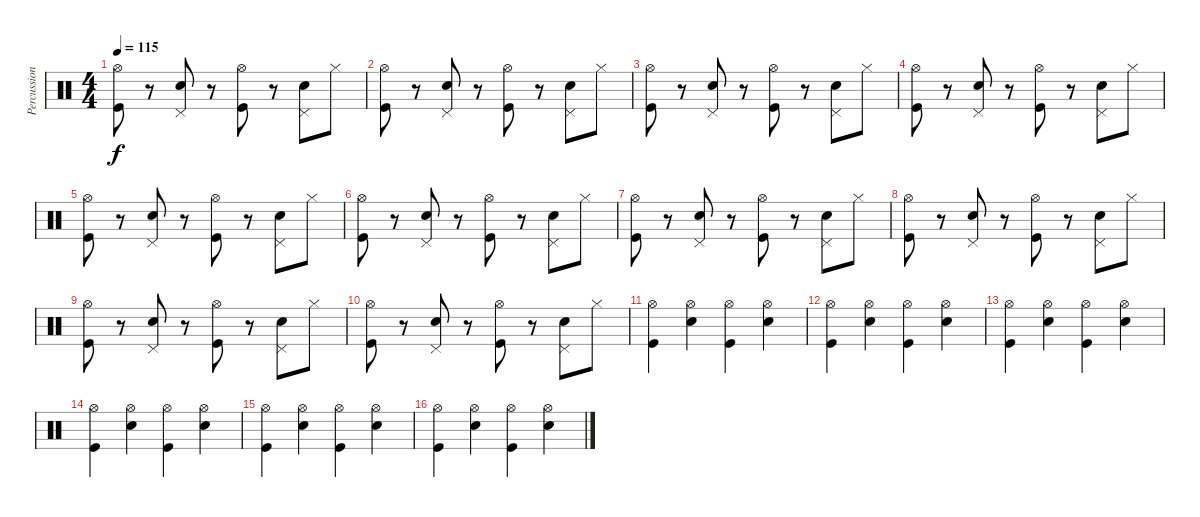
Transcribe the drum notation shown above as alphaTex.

\track ("Percussioni" "Percussion") {instrument percussion}
\staff {score}
\articulation defaults
\ts (4 4)
\tempo 115
\clef neutral
\ks c
("Hi-Hat (open)" "Kick (hit)").8{dy f} r.8 ("Pedal Hi-Hat (hit)" "Electric Snare (hit)").8 r.8 ("Hi-Hat (open)" "Kick (hit)").8 r.8 ("Pedal Hi-Hat (hit)" "Electric Snare (hit)").8 "Hi-Hat (closed)".8 |
("Hi-Hat (open)" "Kick (hit)").8 r.8 ("Pedal Hi-Hat (hit)" "Electric Snare (hit)").8 r.8 ("Hi-Hat (open)" "Kick (hit)").8 r.8 ("Pedal Hi-Hat (hit)" "Electric Snare (hit)").8 "Hi-Hat (closed)".8 |
("Hi-Hat (open)" "Kick (hit)").8 r.8 ("Pedal Hi-Hat (hit)" "Electric Snare (hit)").8 r.8 ("Hi-Hat (open)" "Kick (hit)").8 r.8 ("Pedal Hi-Hat (hit)" "Electric Snare (hit)").8 "Hi-Hat (closed)".8 |
("Hi-Hat (open)" "Kick (hit)").8 r.8 ("Pedal Hi-Hat (hit)" "Electric Snare (hit)").8 r.8 ("Hi-Hat (open)" "Kick (hit)").8 r.8 ("Pedal Hi-Hat (hit)" "Electric Snare (hit)").8 "Hi-Hat (closed)".8 |
("Hi-Hat (open)" "Kick (hit)").8 r.8 ("Pedal Hi-Hat (hit)" "Electric Snare (hit)").8 r.8 ("Hi-Hat (open)" "Kick (hit)").8 r.8 ("Pedal Hi-Hat (hit)" "Electric Snare (hit)").8 "Hi-Hat (closed)".8 |
("Hi-Hat (open)" "Kick (hit)").8 r.8 ("Pedal Hi-Hat (hit)" "Electric Snare (hit)").8 r.8 ("Hi-Hat (open)" "Kick (hit)").8 r.8 ("Pedal Hi-Hat (hit)" "Electric Snare (hit)").8 "Hi-Hat (closed)".8 |
("Hi-Hat (open)" "Kick (hit)").8 r.8 ("Pedal Hi-Hat (hit)" "Electric Snare (hit)").8 r.8 ("Hi-Hat (open)" "Kick (hit)").8 r.8 ("Pedal Hi-Hat (hit)" "Electric Snare (hit)").8 "Hi-Hat (closed)".8 |
("Hi-Hat (open)" "Kick (hit)").8 r.8 ("Pedal Hi-Hat (hit)" "Electric Snare (hit)").8 r.8 ("Hi-Hat (open)" "Kick (hit)").8 r.8 ("Pedal Hi-Hat (hit)" "Electric Snare (hit)").8 "Hi-Hat (closed)".8 |
("Hi-Hat (open)" "Kick (hit)").8 r.8 ("Pedal Hi-Hat (hit)" "Electric Snare (hit)").8 r.8 ("Hi-Hat (open)" "Kick (hit)").8 r.8 ("Pedal Hi-Hat (hit)" "Electric Snare (hit)").8 "Hi-Hat (closed)".8 |
("Hi-Hat (open)" "Kick (hit)").8 r.8 ("Pedal Hi-Hat (hit)" "Electric Snare (hit)").8 r.8 ("Hi-Hat (open)" "Kick (hit)").8 r.8 ("Pedal Hi-Hat (hit)" "Electric Snare (hit)").8 "Hi-Hat (closed)".8 |
("Hi-Hat (open)" "Kick (hit)").4 ("Hi-Hat (open)" "Electric Snare (hit)").4 ("Hi-Hat (open)" "Kick (hit)").4 ("Hi-Hat (open)" "Electric Snare (hit)").4 |
("Hi-Hat (open)" "Kick (hit)").4 ("Hi-Hat (open)" "Electric Snare (hit)").4 ("Hi-Hat (open)" "Kick (hit)").4 ("Hi-Hat (open)" "Electric Snare (hit)").4 |
("Hi-Hat (open)" "Kick (hit)").4 ("Hi-Hat (open)" "Electric Snare (hit)").4 ("Hi-Hat (open)" "Kick (hit)").4 ("Hi-Hat (open)" "Electric Snare (hit)").4 |
("Hi-Hat (open)" "Kick (hit)").4 ("Hi-Hat (open)" "Electric Snare (hit)").4 ("Hi-Hat (open)" "Kick (hit)").4 ("Hi-Hat (open)" "Electric Snare (hit)").4 |
("Hi-Hat (open)" "Kick (hit)").4 ("Hi-Hat (open)" "Electric Snare (hit)").4 ("Hi-Hat (open)" "Kick (hit)").4 ("Hi-Hat (open)" "Electric Snare (hit)").4 |
("Hi-Hat (open)" "Kick (hit)").4 ("Hi-Hat (open)" "Electric Snare (hit)").4 ("Hi-Hat (open)" "Kick (hit)").4 ("Hi-Hat (open)" "Electric Snare (hit)").4
